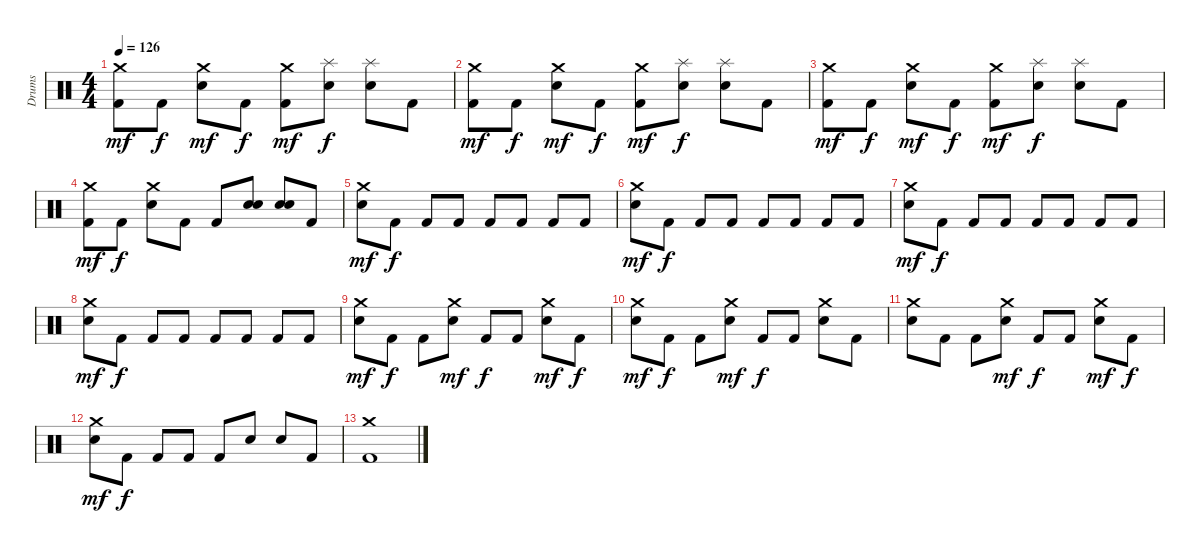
\track ("Drums" "Drums") {instrument percussion}
\staff {score}
\articulation defaults
\ts (4 4)
\tempo 126
\clef neutral
\ks c
("Crash medium (hit)" "Kick (hit) 2").8{dy mf} "Kick (hit) 2".8{dy f} ("Crash medium (hit)" "Electric Snare (hit)").8{dy mf} "Kick (hit) 2".8{dy f} ("Crash medium (hit)" "Kick (hit) 2").8{dy mf} ("Splash (hit)" "Electric Snare (hit)").8{dy f} ("Splash (hit)" "Electric Snare (hit)").8 "Kick (hit) 2".8 |
("Crash medium (hit)" "Kick (hit) 2").8{dy mf} "Kick (hit) 2".8{dy f} ("Crash medium (hit)" "Electric Snare (hit)").8{dy mf} "Kick (hit) 2".8{dy f} ("Crash medium (hit)" "Kick (hit) 2").8{dy mf} ("Splash (hit)" "Electric Snare (hit)").8{dy f} ("Splash (hit)" "Electric Snare (hit)").8 "Kick (hit) 2".8 |
("Crash medium (hit)" "Kick (hit) 2").8{dy mf} "Kick (hit) 2".8{dy f} ("Crash medium (hit)" "Electric Snare (hit)").8{dy mf} "Kick (hit) 2".8{dy f} ("Crash medium (hit)" "Kick (hit) 2").8{dy mf} ("Splash (hit)" "Electric Snare (hit)").8{dy f} ("Splash (hit)" "Electric Snare (hit)").8 "Kick (hit) 2".8 |
("Crash medium (hit)" "Kick (hit) 2").8{dy mf} "Kick (hit) 2".8{dy f} ("Crash medium (hit)" "Electric Snare (hit)").8 "Kick (hit) 2".8 "Kick (hit) 2".8 ("Electric Snare (hit)" "Electric Snare (hit)").8 ("Electric Snare (hit)" "Electric Snare (hit)").8 "Kick (hit) 2".8 |
("Crash medium (hit)" "Electric Snare (hit)").8{dy mf} "Kick (hit) 2".8{dy f} "Kick (hit) 2".8 "Kick (hit) 2".8 "Kick (hit) 2".8 "Kick (hit) 2".8 "Kick (hit) 2".8 "Kick (hit) 2".8 |
("Crash medium (hit)" "Electric Snare (hit)").8{dy mf} "Kick (hit) 2".8{dy f} "Kick (hit) 2".8 "Kick (hit) 2".8 "Kick (hit) 2".8 "Kick (hit) 2".8 "Kick (hit) 2".8 "Kick (hit) 2".8 |
("Crash medium (hit)" "Electric Snare (hit)").8{dy mf} "Kick (hit) 2".8{dy f} "Kick (hit) 2".8 "Kick (hit) 2".8 "Kick (hit) 2".8 "Kick (hit) 2".8 "Kick (hit) 2".8 "Kick (hit) 2".8 |
("Crash medium (hit)" "Electric Snare (hit)").8{dy mf} "Kick (hit) 2".8{dy f} "Kick (hit) 2".8 "Kick (hit) 2".8 "Kick (hit) 2".8 "Kick (hit) 2".8 "Kick (hit) 2".8 "Kick (hit) 2".8 |
("Crash medium (hit)" "Electric Snare (hit)").8{dy mf} "Kick (hit) 2".8{dy f} "Kick (hit) 2".8 ("Crash medium (hit)" "Electric Snare (hit)").8{dy mf} "Kick (hit) 2".8{dy f} "Kick (hit) 2".8 ("Crash medium (hit)" "Electric Snare (hit)").8{dy mf} "Kick (hit) 2".8{dy f} |
("Crash medium (hit)" "Electric Snare (hit)").8{dy mf} "Kick (hit) 2".8{dy f} "Kick (hit) 2".8 ("Crash medium (hit)" "Electric Snare (hit)").8{dy mf} "Kick (hit) 2".8{dy f} "Kick (hit) 2".8 ("Crash medium (hit)" "Electric Snare (hit)").8 "Kick (hit) 2".8 |
("Crash medium (hit)" "Electric Snare (hit)").8 "Kick (hit) 2".8 "Kick (hit) 2".8 ("Crash medium (hit)" "Electric Snare (hit)").8{dy mf} "Kick (hit) 2".8{dy f} "Kick (hit) 2".8 ("Crash medium (hit)" "Electric Snare (hit)").8{dy mf} "Kick (hit) 2".8{dy f} |
("Crash medium (hit)" "Electric Snare (hit)").8{dy mf} "Kick (hit) 2".8{dy f} "Kick (hit) 2".8 "Kick (hit) 2".8 "Kick (hit) 2".8 "Electric Snare (hit)".8 "Electric Snare (hit)".8 "Kick (hit) 2".8 |
("Crash medium (hit)" "Kick (hit) 2").1
